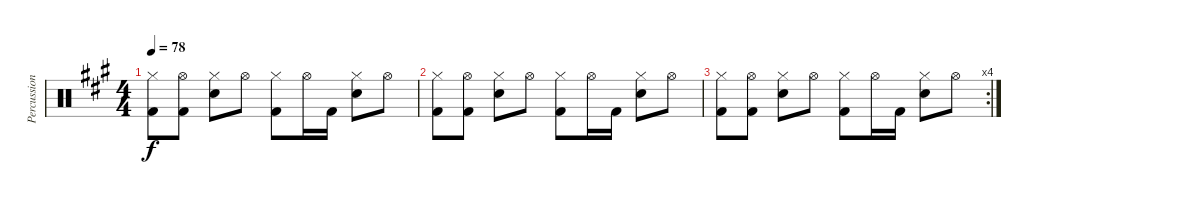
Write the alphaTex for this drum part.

\track ("Percussions" "Percussion") {instrument percussion}
\staff {score}
\articulation defaults
\ts (4 4)
\tempo 78
\clef neutral
\ks a
("Hi-Hat (closed)" "Kick (hit) 2").8{dy f} ("Hi-Hat (open)" "Kick (hit) 2").8 ("Hi-Hat (closed)" "Snare (hit) 2").8 "Hi-Hat (open)".8 ("Hi-Hat (closed)" "Kick (hit) 2").8 "Hi-Hat (open)".16 "Kick (hit) 2".16 ("Hi-Hat (closed)" "Snare (hit) 2").8 "Hi-Hat (open)".8 |
("Hi-Hat (closed)" "Kick (hit) 2").8 ("Hi-Hat (open)" "Kick (hit) 2").8 ("Hi-Hat (closed)" "Snare (hit) 2").8 "Hi-Hat (open)".8 ("Hi-Hat (closed)" "Kick (hit) 2").8 "Hi-Hat (open)".16 "Kick (hit) 2".16 ("Hi-Hat (closed)" "Snare (hit) 2").8 "Hi-Hat (open)".8 |
\rc 4
("Hi-Hat (closed)" "Kick (hit) 2").8 ("Hi-Hat (open)" "Kick (hit) 2").8 ("Hi-Hat (closed)" "Snare (hit) 2").8 "Hi-Hat (open)".8 ("Hi-Hat (closed)" "Kick (hit) 2").8 "Hi-Hat (open)".16 "Kick (hit) 2".16 ("Hi-Hat (closed)" "Snare (hit) 2").8 "Hi-Hat (open)".8
